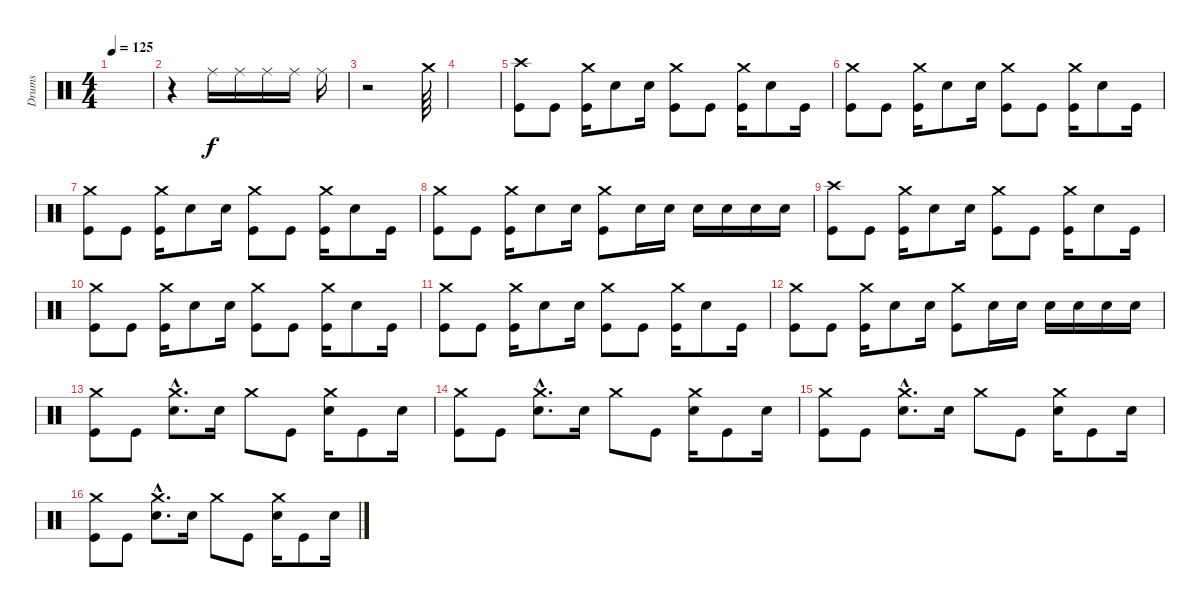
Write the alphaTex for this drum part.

\track ("Drums" "Drums") {instrument percussion}
\staff {score}
\articulation defaults
\ts (4 4)
\tempo 125
\clef neutral
\ks c
|
r.4 "Ride (middle)".16 "Ride (middle)".16 "Ride (middle)".16 "Ride (middle)".16 "Ride (middle)".16 |
r.2 "Crash medium (hit)".64 |
|
("Kick (hit)" "Crash high (hit)").8 "Kick (hit)".8 ("Kick (hit)" "Crash medium (hit)").16 "Snare (hit) 2".8 "Snare (hit) 2".16 ("Kick (hit)" "Crash medium (hit)").8 "Kick (hit)".8 ("Kick (hit)" "Crash medium (hit)").16 "Snare (hit) 2".8 "Kick (hit)".16 |
("Kick (hit)" "Crash medium (hit)").8 "Kick (hit)".8 ("Kick (hit)" "Crash medium (hit)").16 "Snare (hit) 2".8 "Snare (hit) 2".16 ("Kick (hit)" "Crash medium (hit)").8 "Kick (hit)".8 ("Kick (hit)" "Crash medium (hit)").16 "Snare (hit) 2".8 "Kick (hit)".16 |
("Kick (hit)" "Crash medium (hit)").8 "Kick (hit)".8 ("Kick (hit)" "Crash medium (hit)").16 "Snare (hit) 2".8 "Snare (hit) 2".16 ("Kick (hit)" "Crash medium (hit)").8 "Kick (hit)".8 ("Kick (hit)" "Crash medium (hit)").16 "Snare (hit) 2".8 "Kick (hit)".16 |
("Kick (hit)" "Crash medium (hit)").8 "Kick (hit)".8 ("Kick (hit)" "Crash medium (hit)").16 "Snare (hit) 2".8 "Snare (hit) 2".16 ("Kick (hit)" "Crash medium (hit)").8 "Snare (hit) 2".16 "Snare (hit) 2".16 "Snare (hit) 2".16 "Snare (hit) 2".16 "Snare (hit) 2".16 "Snare (hit) 2".16 |
("Kick (hit)" "Crash high (hit)").8 "Kick (hit)".8 ("Kick (hit)" "Crash medium (hit)").16 "Snare (hit) 2".8 "Snare (hit) 2".16 ("Kick (hit)" "Crash medium (hit)").8 "Kick (hit)".8 ("Kick (hit)" "Crash medium (hit)").16 "Snare (hit) 2".8 "Kick (hit)".16 |
("Kick (hit)" "Crash medium (hit)").8 "Kick (hit)".8 ("Kick (hit)" "Crash medium (hit)").16 "Snare (hit) 2".8 "Snare (hit) 2".16 ("Kick (hit)" "Crash medium (hit)").8 "Kick (hit)".8 ("Kick (hit)" "Crash medium (hit)").16 "Snare (hit) 2".8 "Kick (hit)".16 |
("Kick (hit)" "Crash medium (hit)").8 "Kick (hit)".8 ("Kick (hit)" "Crash medium (hit)").16 "Snare (hit) 2".8 "Snare (hit) 2".16 ("Kick (hit)" "Crash medium (hit)").8 "Kick (hit)".8 ("Kick (hit)" "Crash medium (hit)").16 "Snare (hit) 2".8 "Kick (hit)".16 |
("Kick (hit)" "Crash medium (hit)").8 "Kick (hit)".8 ("Kick (hit)" "Crash medium (hit)").16 "Snare (hit) 2".8 "Snare (hit) 2".16 ("Kick (hit)" "Crash medium (hit)").8 "Snare (hit) 2".16 "Snare (hit) 2".16 "Snare (hit) 2".16 "Snare (hit) 2".16 "Snare (hit) 2".16 "Snare (hit) 2".16 |
("Kick (hit)" "Crash medium (hit)").8 "Kick (hit)".8 ("Snare (hit) 2"{hac} "Crash medium (hit)"{hac}).8{d} "Snare (hit) 2".16 "Crash medium (hit)".8 "Kick (hit)".8 ("Snare (hit) 2" "Crash medium (hit)").16 "Kick (hit)".8 "Snare (hit) 2".16 |
("Kick (hit)" "Crash medium (hit)").8 "Kick (hit)".8 ("Snare (hit) 2"{hac} "Crash medium (hit)"{hac}).8{d} "Snare (hit) 2".16 "Crash medium (hit)".8 "Kick (hit)".8 ("Snare (hit) 2" "Crash medium (hit)").16 "Kick (hit)".8 "Snare (hit) 2".16 |
("Kick (hit)" "Crash medium (hit)").8 "Kick (hit)".8 ("Snare (hit) 2"{hac} "Crash medium (hit)"{hac}).8{d} "Snare (hit) 2".16 "Crash medium (hit)".8 "Kick (hit)".8 ("Snare (hit) 2" "Crash medium (hit)").16 "Kick (hit)".8 "Snare (hit) 2".16 |
("Kick (hit)" "Crash medium (hit)").8 "Kick (hit)".8 ("Snare (hit) 2"{hac} "Crash medium (hit)"{hac}).8{d} "Snare (hit) 2".16 "Crash medium (hit)".8 "Kick (hit)".8 ("Snare (hit) 2" "Crash medium (hit)").16 "Kick (hit)".8 "Snare (hit) 2".16
